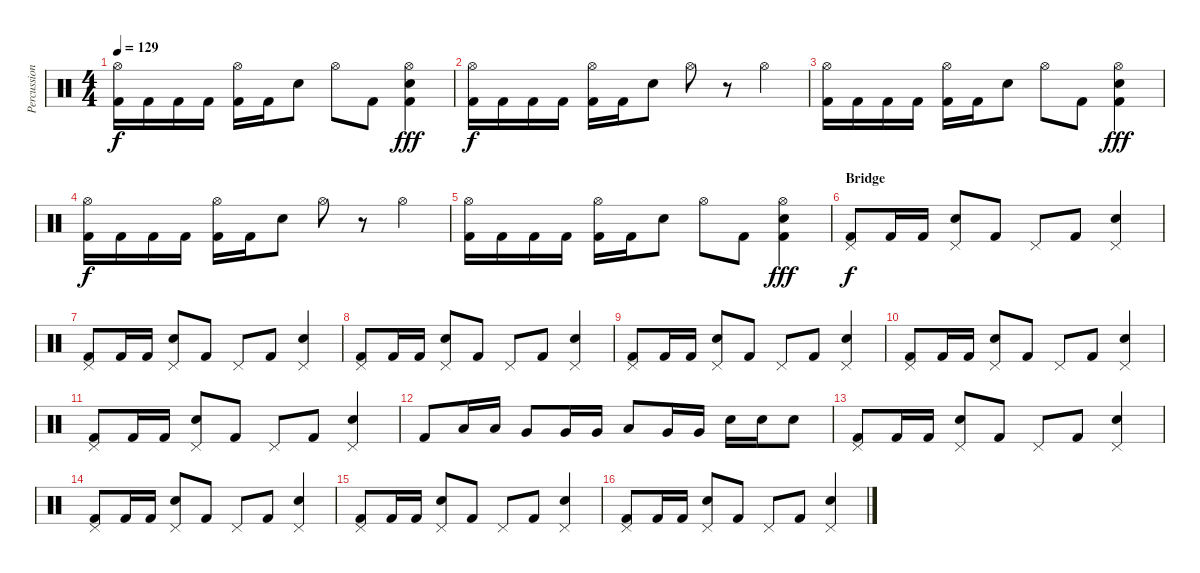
\track ("Percussion" "Percussion") {instrument percussion}
\staff {score}
\articulation defaults
\ts (4 4)
\tempo 129
\clef neutral
\ks c
("Hi-Hat (open)" "Kick (hit) 2").16{dy f} "Kick (hit) 2".16 "Kick (hit) 2".16 "Kick (hit) 2".16 ("Hi-Hat (open)" "Kick (hit) 2").16 "Kick (hit) 2".16 "Electric Snare (hit)".8 "Hi-Hat (open)".8 "Kick (hit) 2".8 ("Hi-Hat (open)" "Electric Snare (hit)" "Kick (hit) 2").4{dy fff} |
("Hi-Hat (open)" "Kick (hit) 2").16{dy f} "Kick (hit) 2".16 "Kick (hit) 2".16 "Kick (hit) 2".16 ("Hi-Hat (open)" "Kick (hit) 2").16 "Kick (hit) 2".16 "Electric Snare (hit)".8 "Hi-Hat (open)".8 r.8 "Hi-Hat (open)".4 |
("Hi-Hat (open)" "Kick (hit) 2").16 "Kick (hit) 2".16 "Kick (hit) 2".16 "Kick (hit) 2".16 ("Hi-Hat (open)" "Kick (hit) 2").16 "Kick (hit) 2".16 "Electric Snare (hit)".8 "Hi-Hat (open)".8 "Kick (hit) 2".8 ("Hi-Hat (open)" "Electric Snare (hit)" "Kick (hit) 2").4{dy fff} |
("Hi-Hat (open)" "Kick (hit) 2").16{dy f} "Kick (hit) 2".16 "Kick (hit) 2".16 "Kick (hit) 2".16 ("Hi-Hat (open)" "Kick (hit) 2").16 "Kick (hit) 2".16 "Electric Snare (hit)".8 "Hi-Hat (open)".8 r.8 "Hi-Hat (open)".4 |
("Hi-Hat (open)" "Kick (hit) 2").16 "Kick (hit) 2".16 "Kick (hit) 2".16 "Kick (hit) 2".16 ("Hi-Hat (open)" "Kick (hit) 2").16 "Kick (hit) 2".16 "Electric Snare (hit)".8 "Hi-Hat (open)".8 "Kick (hit) 2".8 ("Hi-Hat (open)" "Electric Snare (hit)" "Kick (hit) 2").4{dy fff} |
\section ("" "Bridge")
("Pedal Hi-Hat (hit)" "Kick (hit) 2").8{dy f} "Kick (hit) 2".16 "Kick (hit) 2".16 ("Pedal Hi-Hat (hit)" "Electric Snare (hit)").8 "Kick (hit) 2".8 "Pedal Hi-Hat (hit)".8 "Kick (hit) 2".8 ("Pedal Hi-Hat (hit)" "Electric Snare (hit)").4 |
("Pedal Hi-Hat (hit)" "Kick (hit) 2").8 "Kick (hit) 2".16 "Kick (hit) 2".16 ("Pedal Hi-Hat (hit)" "Electric Snare (hit)").8 "Kick (hit) 2".8 "Pedal Hi-Hat (hit)".8 "Kick (hit) 2".8 ("Pedal Hi-Hat (hit)" "Electric Snare (hit)").4 |
("Pedal Hi-Hat (hit)" "Kick (hit) 2").8 "Kick (hit) 2".16 "Kick (hit) 2".16 ("Pedal Hi-Hat (hit)" "Electric Snare (hit)").8 "Kick (hit) 2".8 "Pedal Hi-Hat (hit)".8 "Kick (hit) 2".8 ("Pedal Hi-Hat (hit)" "Electric Snare (hit)").4 |
("Pedal Hi-Hat (hit)" "Kick (hit) 2").8 "Kick (hit) 2".16 "Kick (hit) 2".16 ("Pedal Hi-Hat (hit)" "Electric Snare (hit)").8 "Kick (hit) 2".8 "Pedal Hi-Hat (hit)".8 "Kick (hit) 2".8 ("Pedal Hi-Hat (hit)" "Electric Snare (hit)").4 |
("Pedal Hi-Hat (hit)" "Kick (hit) 2").8 "Kick (hit) 2".16 "Kick (hit) 2".16 ("Pedal Hi-Hat (hit)" "Electric Snare (hit)").8 "Kick (hit) 2".8 "Pedal Hi-Hat (hit)".8 "Kick (hit) 2".8 ("Pedal Hi-Hat (hit)" "Electric Snare (hit)").4 |
("Pedal Hi-Hat (hit)" "Kick (hit) 2").8 "Kick (hit) 2".16 "Kick (hit) 2".16 ("Pedal Hi-Hat (hit)" "Electric Snare (hit)").8 "Kick (hit) 2".8 "Pedal Hi-Hat (hit)".8 "Kick (hit) 2".8 ("Pedal Hi-Hat (hit)" "Electric Snare (hit)").4 |
"Kick (hit) 2".8 "Low Floor Tom (hit)".16 "Low Floor Tom (hit)".16 "Very Low Tom (hit)".8 "Very Low Tom (hit)".16 "Very Low Tom (hit)".16 "Low Tom (hit)".8 "Very Low Tom (hit)".16 "Very Low Tom (hit)".16 "Electric Snare (hit)".16 "Electric Snare (hit)".16 "Electric Snare (hit)".8 |
("Pedal Hi-Hat (hit)" "Kick (hit) 2").8 "Kick (hit) 2".16 "Kick (hit) 2".16 ("Pedal Hi-Hat (hit)" "Electric Snare (hit)").8 "Kick (hit) 2".8 "Pedal Hi-Hat (hit)".8 "Kick (hit) 2".8 ("Pedal Hi-Hat (hit)" "Electric Snare (hit)").4 |
("Pedal Hi-Hat (hit)" "Kick (hit) 2").8 "Kick (hit) 2".16 "Kick (hit) 2".16 ("Pedal Hi-Hat (hit)" "Electric Snare (hit)").8 "Kick (hit) 2".8 "Pedal Hi-Hat (hit)".8 "Kick (hit) 2".8 ("Pedal Hi-Hat (hit)" "Electric Snare (hit)").4 |
("Pedal Hi-Hat (hit)" "Kick (hit) 2").8 "Kick (hit) 2".16 "Kick (hit) 2".16 ("Pedal Hi-Hat (hit)" "Electric Snare (hit)").8 "Kick (hit) 2".8 "Pedal Hi-Hat (hit)".8 "Kick (hit) 2".8 ("Pedal Hi-Hat (hit)" "Electric Snare (hit)").4 |
("Pedal Hi-Hat (hit)" "Kick (hit) 2").8 "Kick (hit) 2".16 "Kick (hit) 2".16 ("Pedal Hi-Hat (hit)" "Electric Snare (hit)").8 "Kick (hit) 2".8 "Pedal Hi-Hat (hit)".8 "Kick (hit) 2".8 ("Pedal Hi-Hat (hit)" "Electric Snare (hit)").4
